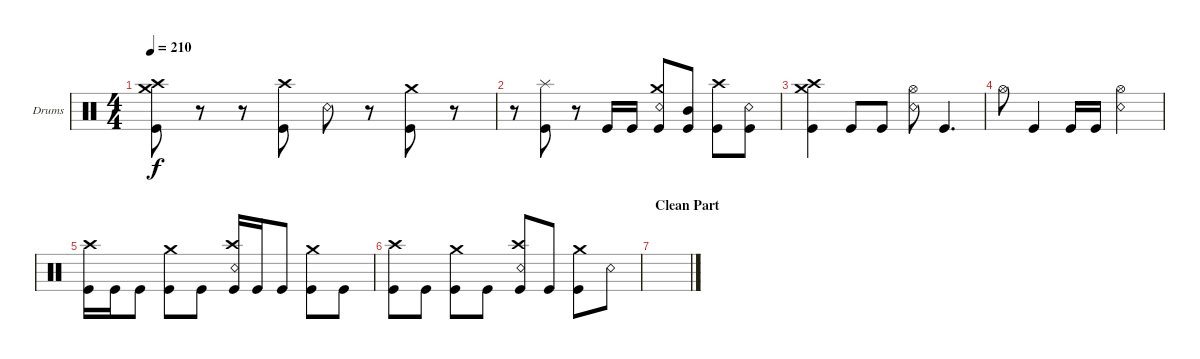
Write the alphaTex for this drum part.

\defaultSystemsLayout 4
\bracketExtendMode groupsimilarinstruments
\firstSystemTrackNameOrientation horizontal
\otherSystemsTrackNameOrientation horizontal
\track ("Drums" "Drums") {instrument percussion}
\staff {score}
\articulation defaults
\ts (4 4)
\tempo 210
\clef neutral
\ks c
("Kick (hit)" "Crash high (hit)" "Crash medium (hit)").8{dy f} r.8 r.8 ("Kick (hit)" "Crash high (hit)").8 "Snare (rim shot)".8 r.8 ("Kick (hit)" "Crash medium (hit)").8 r.8 |
r.8 ("Kick (hit)" "Splash (hit)").8 r.8 "Kick (hit)".16 "Kick (hit)".16 ("Kick (hit)" "Crash medium (hit)" "Snare (rim shot)").8 ("Kick (hit)" "Mid Tom (hit)").8 ("Kick (hit)" "Crash high (hit)").8 ("Kick (hit)" "Snare (rim shot)").8 |
("Crash high (hit)" "Crash medium (hit)" "Kick (hit)").4 "Kick (hit)".8 "Kick (hit)".8 ("Hi-Hat (open)" "Snare (rim shot)").8 "Kick (hit)".4{d} |
"Hi-Hat (open)".8 "Kick (hit)".4 "Kick (hit)".16 "Kick (hit)".16 ("Hi-Hat (open)" "Snare (rim shot)").2 |
("Crash high (hit)" "Kick (hit)").16 "Kick (hit)".16 "Kick (hit)".8 ("Crash medium (hit)" "Kick (hit)").8 "Kick (hit)".8 ("Crash high (hit)" "Snare (rim shot)" "Kick (hit)").16 "Kick (hit)".16 "Kick (hit)".8 ("Crash medium (hit)" "Kick (hit)").8 "Kick (hit)".8 |
("Crash high (hit)" "Kick (hit)").8 "Kick (hit)".8 ("Crash medium (hit)" "Kick (hit)").8 "Kick (hit)".8 ("Crash high (hit)" "Snare (rim shot)" "Kick (hit)").8 "Kick (hit)".8 ("Crash medium (hit)" "Kick (hit)").8 "Snare (rim shot)".8 |
\section ("" "Clean Part")
